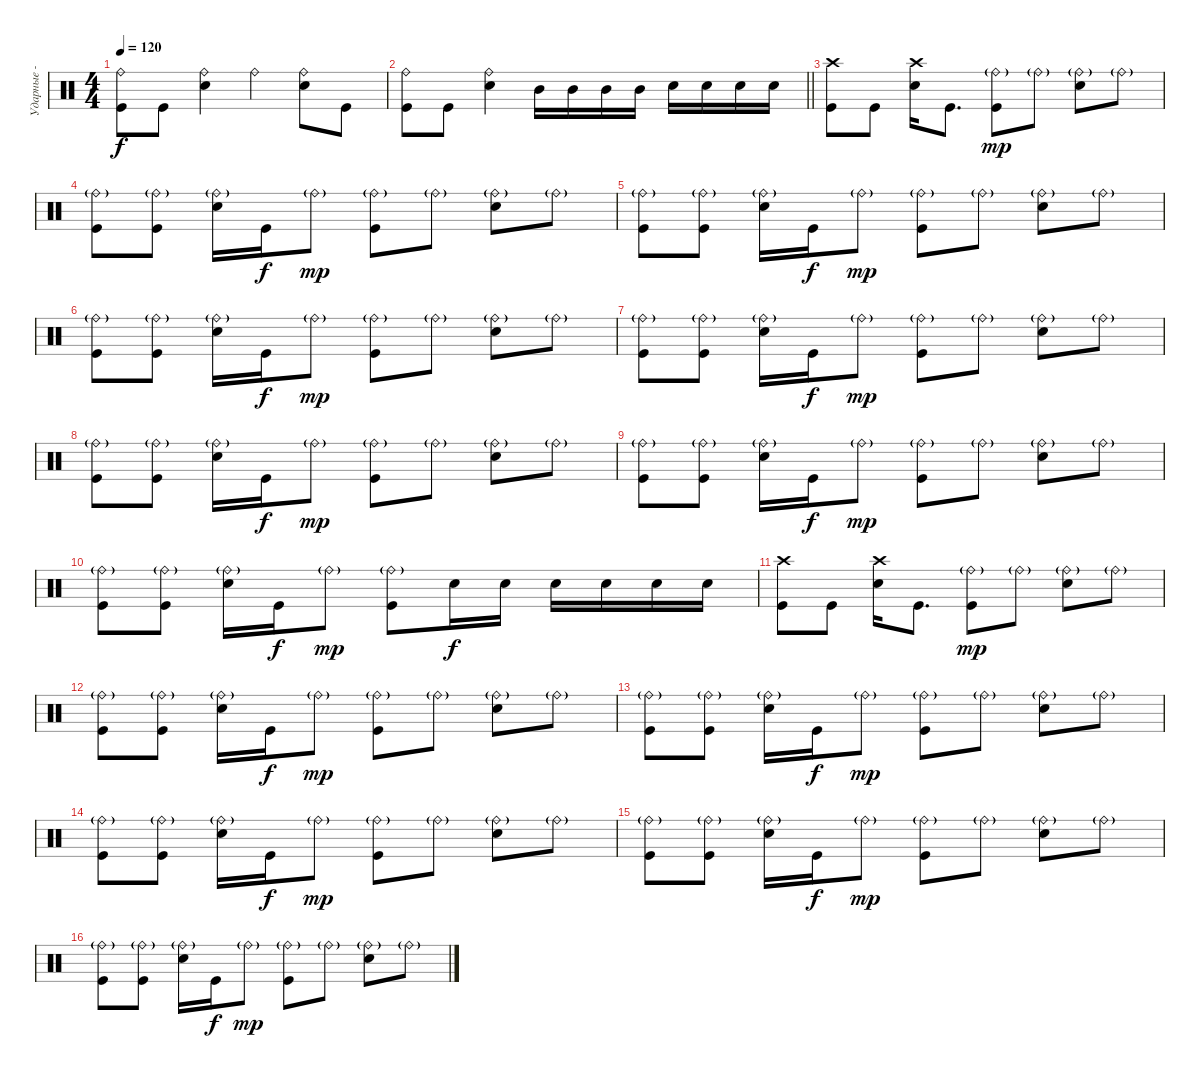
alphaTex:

\track ("Ударные - Джек Уайт" "Ударные - ") {instrument percussion}
\staff {score}
\articulation defaults
\ts (4 4)
\tempo 120
\clef neutral
\ks c
("Ride (bell)" "Kick (hit)").8{dy f} "Kick (hit)".8 ("Ride (bell)" "Snare (hit) 2").4 "Ride (bell)".4 ("Ride (bell)" "Snare (hit) 2").8 "Kick (hit)".8 |
\barLineRight lightlight
("Ride (bell)" "Kick (hit)").8 "Kick (hit)".8 ("Ride (bell)" "Snare (hit) 2").4 "Mid Tom (hit)".16 "Mid Tom (hit)".16 "Mid Tom (hit)".16 "Mid Tom (hit)".16 "Snare (hit) 2".16 "Snare (hit) 2".16 "Snare (hit) 2".16 "Snare (hit) 2".16 |
("Crash high (hit)" "Kick (hit)").8 "Kick (hit)".8 ("Crash high (hit)" "Snare (hit) 2").16 "Kick (hit)".8{d} ("Ride (bell)"{g} "Kick (hit)").8{dy mp} "Ride (bell)"{g}.8 ("Ride (bell)"{g} "Snare (hit) 2").8 "Ride (bell)"{g}.8 |
("Ride (bell)"{g} "Kick (hit)").8 ("Ride (bell)"{g} "Kick (hit)").8 ("Ride (bell)"{g} "Snare (hit) 2").16 "Kick (hit)".16{dy f} "Ride (bell)"{g}.8{dy mp} ("Ride (bell)"{g} "Kick (hit)").8 "Ride (bell)"{g}.8 ("Ride (bell)"{g} "Snare (hit) 2").8 "Ride (bell)"{g}.8 |
("Ride (bell)"{g} "Kick (hit)").8 ("Ride (bell)"{g} "Kick (hit)").8 ("Ride (bell)"{g} "Snare (hit) 2").16 "Kick (hit)".16{dy f} "Ride (bell)"{g}.8{dy mp} ("Ride (bell)"{g} "Kick (hit)").8 "Ride (bell)"{g}.8 ("Ride (bell)"{g} "Snare (hit) 2").8 "Ride (bell)"{g}.8 |
("Ride (bell)"{g} "Kick (hit)").8 ("Ride (bell)"{g} "Kick (hit)").8 ("Ride (bell)"{g} "Snare (hit) 2").16 "Kick (hit)".16{dy f} "Ride (bell)"{g}.8{dy mp} ("Ride (bell)"{g} "Kick (hit)").8 "Ride (bell)"{g}.8 ("Ride (bell)"{g} "Snare (hit) 2").8 "Ride (bell)"{g}.8 |
("Ride (bell)"{g} "Kick (hit)").8 ("Ride (bell)"{g} "Kick (hit)").8 ("Ride (bell)"{g} "Snare (hit) 2").16 "Kick (hit)".16{dy f} "Ride (bell)"{g}.8{dy mp} ("Ride (bell)"{g} "Kick (hit)").8 "Ride (bell)"{g}.8 ("Ride (bell)"{g} "Snare (hit) 2").8 "Ride (bell)"{g}.8 |
("Ride (bell)"{g} "Kick (hit)").8 ("Ride (bell)"{g} "Kick (hit)").8 ("Ride (bell)"{g} "Snare (hit) 2").16 "Kick (hit)".16{dy f} "Ride (bell)"{g}.8{dy mp} ("Ride (bell)"{g} "Kick (hit)").8 "Ride (bell)"{g}.8 ("Ride (bell)"{g} "Snare (hit) 2").8 "Ride (bell)"{g}.8 |
("Ride (bell)"{g} "Kick (hit)").8 ("Ride (bell)"{g} "Kick (hit)").8 ("Ride (bell)"{g} "Snare (hit) 2").16 "Kick (hit)".16{dy f} "Ride (bell)"{g}.8{dy mp} ("Ride (bell)"{g} "Kick (hit)").8 "Ride (bell)"{g}.8 ("Ride (bell)"{g} "Snare (hit) 2").8 "Ride (bell)"{g}.8 |
("Ride (bell)"{g} "Kick (hit)").8 ("Ride (bell)"{g} "Kick (hit)").8 ("Ride (bell)"{g} "Snare (hit) 2").16 "Kick (hit)".16{dy f} "Ride (bell)"{g}.8{dy mp} ("Ride (bell)"{g} "Kick (hit)").8 "Snare (hit) 2".16{dy f} "Snare (hit) 2".16 "Snare (hit) 2".16 "Snare (hit) 2".16 "Snare (hit) 2".16 "Snare (hit) 2".16 |
("Crash high (hit)" "Kick (hit)").8 "Kick (hit)".8 ("Crash high (hit)" "Snare (hit) 2").16 "Kick (hit)".8{d} ("Ride (bell)"{g} "Kick (hit)").8{dy mp} "Ride (bell)"{g}.8 ("Ride (bell)"{g} "Snare (hit) 2").8 "Ride (bell)"{g}.8 |
("Ride (bell)"{g} "Kick (hit)").8 ("Ride (bell)"{g} "Kick (hit)").8 ("Ride (bell)"{g} "Snare (hit) 2").16 "Kick (hit)".16{dy f} "Ride (bell)"{g}.8{dy mp} ("Ride (bell)"{g} "Kick (hit)").8 "Ride (bell)"{g}.8 ("Ride (bell)"{g} "Snare (hit) 2").8 "Ride (bell)"{g}.8 |
("Ride (bell)"{g} "Kick (hit)").8 ("Ride (bell)"{g} "Kick (hit)").8 ("Ride (bell)"{g} "Snare (hit) 2").16 "Kick (hit)".16{dy f} "Ride (bell)"{g}.8{dy mp} ("Ride (bell)"{g} "Kick (hit)").8 "Ride (bell)"{g}.8 ("Ride (bell)"{g} "Snare (hit) 2").8 "Ride (bell)"{g}.8 |
("Ride (bell)"{g} "Kick (hit)").8 ("Ride (bell)"{g} "Kick (hit)").8 ("Ride (bell)"{g} "Snare (hit) 2").16 "Kick (hit)".16{dy f} "Ride (bell)"{g}.8{dy mp} ("Ride (bell)"{g} "Kick (hit)").8 "Ride (bell)"{g}.8 ("Ride (bell)"{g} "Snare (hit) 2").8 "Ride (bell)"{g}.8 |
("Ride (bell)"{g} "Kick (hit)").8 ("Ride (bell)"{g} "Kick (hit)").8 ("Ride (bell)"{g} "Snare (hit) 2").16 "Kick (hit)".16{dy f} "Ride (bell)"{g}.8{dy mp} ("Ride (bell)"{g} "Kick (hit)").8 "Ride (bell)"{g}.8 ("Ride (bell)"{g} "Snare (hit) 2").8 "Ride (bell)"{g}.8 |
("Ride (bell)"{g} "Kick (hit)").8 ("Ride (bell)"{g} "Kick (hit)").8 ("Ride (bell)"{g} "Snare (hit) 2").16 "Kick (hit)".16{dy f} "Ride (bell)"{g}.8{dy mp} ("Ride (bell)"{g} "Kick (hit)").8 "Ride (bell)"{g}.8 ("Ride (bell)"{g} "Snare (hit) 2").8 "Ride (bell)"{g}.8
